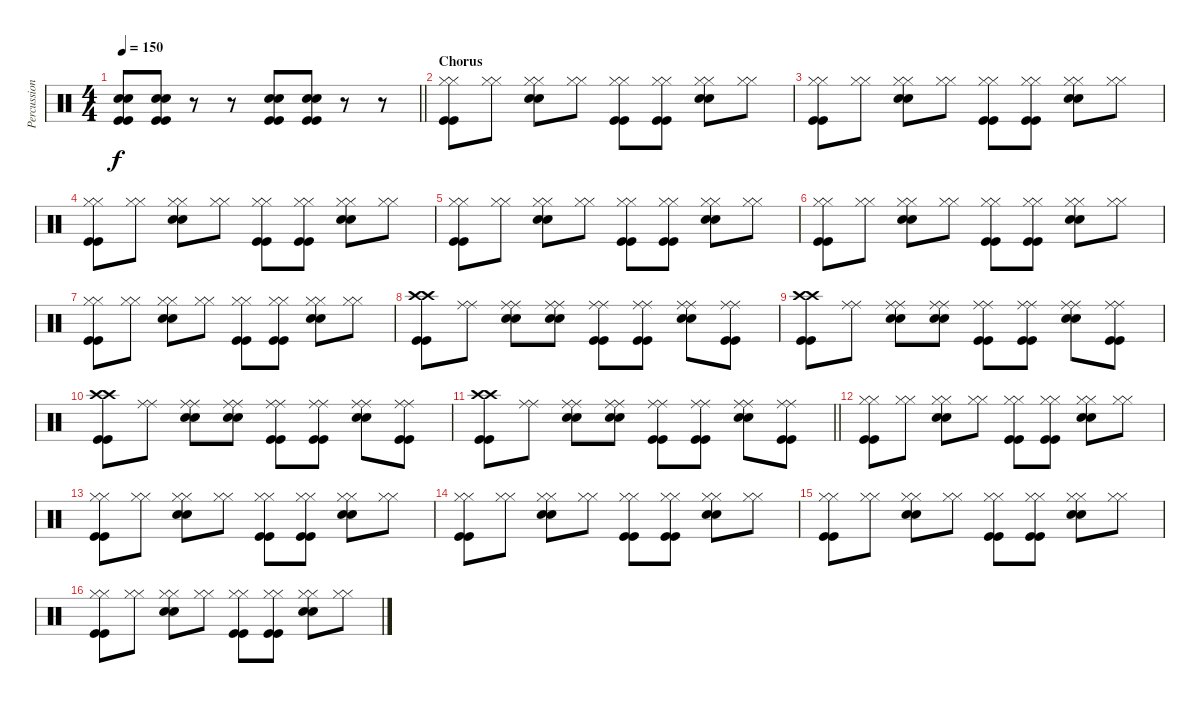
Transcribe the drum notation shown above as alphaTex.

\track ("Percussion" "Percussion") {instrument percussion bank 129}
\staff
\articulation defaults
\ts (4 4)
\tempo 150
\clef neutral
\barLineRight lightlight
\ks c
("Kick (hit)" "Kick (hit)" "Snare (hit) 2" "Snare (hit) 2").8{dy f} ("Kick (hit)" "Kick (hit)" "Snare (hit) 2" "Snare (hit) 2").8 r.8 r.8 ("Kick (hit)" "Kick (hit)" "Snare (hit) 2" "Snare (hit) 2").8 ("Kick (hit)" "Kick (hit)" "Snare (hit) 2" "Snare (hit) 2").8 r.8 r.8 |
\section ("" "Chorus")
("Hi-Hat (closed)" "Hi-Hat (closed)" "Kick (hit)" "Kick (hit)").8 ("Hi-Hat (closed)" "Hi-Hat (closed)").8 ("Hi-Hat (closed)" "Hi-Hat (closed)" "Snare (hit) 2" "Snare (hit) 2").8 ("Hi-Hat (closed)" "Hi-Hat (closed)").8 ("Hi-Hat (closed)" "Hi-Hat (closed)" "Kick (hit)" "Kick (hit)").8 ("Hi-Hat (closed)" "Hi-Hat (closed)" "Kick (hit)" "Kick (hit)").8 ("Hi-Hat (closed)" "Hi-Hat (closed)" "Snare (hit) 2" "Snare (hit) 2").8 ("Hi-Hat (closed)" "Hi-Hat (closed)").8 |
("Hi-Hat (closed)" "Hi-Hat (closed)" "Kick (hit)" "Kick (hit)").8 ("Hi-Hat (closed)" "Hi-Hat (closed)").8 ("Hi-Hat (closed)" "Hi-Hat (closed)" "Snare (hit) 2" "Snare (hit) 2").8 ("Hi-Hat (closed)" "Hi-Hat (closed)").8 ("Hi-Hat (closed)" "Hi-Hat (closed)" "Kick (hit)" "Kick (hit)").8 ("Hi-Hat (closed)" "Hi-Hat (closed)" "Kick (hit)" "Kick (hit)").8 ("Hi-Hat (closed)" "Hi-Hat (closed)" "Snare (hit) 2" "Snare (hit) 2").8 ("Hi-Hat (closed)" "Hi-Hat (closed)").8 |
("Hi-Hat (closed)" "Hi-Hat (closed)" "Kick (hit)" "Kick (hit)").8 ("Hi-Hat (closed)" "Hi-Hat (closed)").8 ("Hi-Hat (closed)" "Hi-Hat (closed)" "Snare (hit) 2" "Snare (hit) 2").8 ("Hi-Hat (closed)" "Hi-Hat (closed)").8 ("Hi-Hat (closed)" "Hi-Hat (closed)" "Kick (hit)" "Kick (hit)").8 ("Hi-Hat (closed)" "Hi-Hat (closed)" "Kick (hit)" "Kick (hit)").8 ("Hi-Hat (closed)" "Hi-Hat (closed)" "Snare (hit) 2" "Snare (hit) 2").8 ("Hi-Hat (closed)" "Hi-Hat (closed)").8 |
("Hi-Hat (closed)" "Hi-Hat (closed)" "Kick (hit)" "Kick (hit)").8 ("Hi-Hat (closed)" "Hi-Hat (closed)").8 ("Hi-Hat (closed)" "Hi-Hat (closed)" "Snare (hit) 2" "Snare (hit) 2").8 ("Hi-Hat (closed)" "Hi-Hat (closed)").8 ("Hi-Hat (closed)" "Hi-Hat (closed)" "Kick (hit)" "Kick (hit)").8 ("Hi-Hat (closed)" "Hi-Hat (closed)" "Kick (hit)" "Kick (hit)").8 ("Hi-Hat (closed)" "Hi-Hat (closed)" "Snare (hit) 2" "Snare (hit) 2").8 ("Hi-Hat (closed)" "Hi-Hat (closed)").8 |
("Hi-Hat (closed)" "Hi-Hat (closed)" "Kick (hit)" "Kick (hit)").8 ("Hi-Hat (closed)" "Hi-Hat (closed)").8 ("Hi-Hat (closed)" "Hi-Hat (closed)" "Snare (hit) 2" "Snare (hit) 2").8 ("Hi-Hat (closed)" "Hi-Hat (closed)").8 ("Hi-Hat (closed)" "Hi-Hat (closed)" "Kick (hit)" "Kick (hit)").8 ("Hi-Hat (closed)" "Hi-Hat (closed)" "Kick (hit)" "Kick (hit)").8 ("Hi-Hat (closed)" "Hi-Hat (closed)" "Snare (hit) 2" "Snare (hit) 2").8 ("Hi-Hat (closed)" "Hi-Hat (closed)").8 |
("Hi-Hat (closed)" "Hi-Hat (closed)" "Kick (hit)" "Kick (hit)").8 ("Hi-Hat (closed)" "Hi-Hat (closed)").8 ("Hi-Hat (closed)" "Hi-Hat (closed)" "Snare (hit) 2" "Snare (hit) 2").8 ("Hi-Hat (closed)" "Hi-Hat (closed)").8 ("Hi-Hat (closed)" "Hi-Hat (closed)" "Kick (hit)" "Kick (hit)").8 ("Hi-Hat (closed)" "Hi-Hat (closed)" "Kick (hit)" "Kick (hit)").8 ("Hi-Hat (closed)" "Hi-Hat (closed)" "Snare (hit) 2" "Snare (hit) 2").8 ("Hi-Hat (closed)" "Hi-Hat (closed)").8 |
("Crash high (hit)" "Crash high (hit)" "Kick (hit)" "Kick (hit)").8 ("Ride (middle)" "Ride (middle)").8 ("Ride (middle)" "Ride (middle)" "Snare (hit) 2" "Snare (hit) 2").8 ("Ride (middle)" "Ride (middle)" "Snare (hit) 2" "Snare (hit) 2").8 ("Ride (middle)" "Ride (middle)" "Kick (hit)" "Kick (hit)").8 ("Ride (middle)" "Ride (middle)" "Kick (hit)" "Kick (hit)").8 ("Ride (middle)" "Ride (middle)" "Snare (hit) 2" "Snare (hit) 2").8 ("Ride (middle)" "Ride (middle)" "Kick (hit)" "Kick (hit)").8 |
("Crash high (hit)" "Crash high (hit)" "Kick (hit)" "Kick (hit)").8 ("Ride (middle)" "Ride (middle)").8 ("Ride (middle)" "Ride (middle)" "Snare (hit) 2" "Snare (hit) 2").8 ("Ride (middle)" "Ride (middle)" "Snare (hit) 2" "Snare (hit) 2").8 ("Ride (middle)" "Ride (middle)" "Kick (hit)" "Kick (hit)").8 ("Ride (middle)" "Ride (middle)" "Kick (hit)" "Kick (hit)").8 ("Ride (middle)" "Ride (middle)" "Snare (hit) 2" "Snare (hit) 2").8 ("Ride (middle)" "Ride (middle)" "Kick (hit)" "Kick (hit)").8 |
("Crash high (hit)" "Crash high (hit)" "Kick (hit)" "Kick (hit)").8 ("Ride (middle)" "Ride (middle)").8 ("Ride (middle)" "Ride (middle)" "Snare (hit) 2" "Snare (hit) 2").8 ("Ride (middle)" "Ride (middle)" "Snare (hit) 2" "Snare (hit) 2").8 ("Ride (middle)" "Ride (middle)" "Kick (hit)" "Kick (hit)").8 ("Ride (middle)" "Ride (middle)" "Kick (hit)" "Kick (hit)").8 ("Ride (middle)" "Ride (middle)" "Snare (hit) 2" "Snare (hit) 2").8 ("Ride (middle)" "Ride (middle)" "Kick (hit)" "Kick (hit)").8 |
\barLineRight lightlight
("Crash high (hit)" "Crash high (hit)" "Kick (hit)" "Kick (hit)").8 ("Ride (middle)" "Ride (middle)").8 ("Ride (middle)" "Ride (middle)" "Snare (hit) 2" "Snare (hit) 2").8 ("Ride (middle)" "Ride (middle)" "Snare (hit) 2" "Snare (hit) 2").8 ("Ride (middle)" "Ride (middle)" "Kick (hit)" "Kick (hit)").8 ("Ride (middle)" "Ride (middle)" "Kick (hit)" "Kick (hit)").8 ("Ride (middle)" "Ride (middle)" "Snare (hit) 2" "Snare (hit) 2").8 ("Ride (middle)" "Ride (middle)" "Kick (hit)" "Kick (hit)").8 |
("Hi-Hat (closed)" "Hi-Hat (closed)" "Kick (hit)" "Kick (hit)").8 ("Hi-Hat (closed)" "Hi-Hat (closed)").8 ("Hi-Hat (closed)" "Hi-Hat (closed)" "Snare (hit) 2" "Snare (hit) 2").8 ("Hi-Hat (closed)" "Hi-Hat (closed)").8 ("Hi-Hat (closed)" "Hi-Hat (closed)" "Kick (hit)" "Kick (hit)").8 ("Hi-Hat (closed)" "Hi-Hat (closed)" "Kick (hit)" "Kick (hit)").8 ("Hi-Hat (closed)" "Hi-Hat (closed)" "Snare (hit) 2" "Snare (hit) 2").8 ("Hi-Hat (closed)" "Hi-Hat (closed)").8 |
("Hi-Hat (closed)" "Hi-Hat (closed)" "Kick (hit)" "Kick (hit)").8 ("Hi-Hat (closed)" "Hi-Hat (closed)").8 ("Hi-Hat (closed)" "Hi-Hat (closed)" "Snare (hit) 2" "Snare (hit) 2").8 ("Hi-Hat (closed)" "Hi-Hat (closed)").8 ("Hi-Hat (closed)" "Hi-Hat (closed)" "Kick (hit)" "Kick (hit)").8 ("Hi-Hat (closed)" "Hi-Hat (closed)" "Kick (hit)" "Kick (hit)").8 ("Hi-Hat (closed)" "Hi-Hat (closed)" "Snare (hit) 2" "Snare (hit) 2").8 ("Hi-Hat (closed)" "Hi-Hat (closed)").8 |
("Hi-Hat (closed)" "Hi-Hat (closed)" "Kick (hit)" "Kick (hit)").8 ("Hi-Hat (closed)" "Hi-Hat (closed)").8 ("Hi-Hat (closed)" "Hi-Hat (closed)" "Snare (hit) 2" "Snare (hit) 2").8 ("Hi-Hat (closed)" "Hi-Hat (closed)").8 ("Hi-Hat (closed)" "Hi-Hat (closed)" "Kick (hit)" "Kick (hit)").8 ("Hi-Hat (closed)" "Hi-Hat (closed)" "Kick (hit)" "Kick (hit)").8 ("Hi-Hat (closed)" "Hi-Hat (closed)" "Snare (hit) 2" "Snare (hit) 2").8 ("Hi-Hat (closed)" "Hi-Hat (closed)").8 |
("Hi-Hat (closed)" "Hi-Hat (closed)" "Kick (hit)" "Kick (hit)").8 ("Hi-Hat (closed)" "Hi-Hat (closed)").8 ("Hi-Hat (closed)" "Hi-Hat (closed)" "Snare (hit) 2" "Snare (hit) 2").8 ("Hi-Hat (closed)" "Hi-Hat (closed)").8 ("Hi-Hat (closed)" "Hi-Hat (closed)" "Kick (hit)" "Kick (hit)").8 ("Hi-Hat (closed)" "Hi-Hat (closed)" "Kick (hit)" "Kick (hit)").8 ("Hi-Hat (closed)" "Hi-Hat (closed)" "Snare (hit) 2" "Snare (hit) 2").8 ("Hi-Hat (closed)" "Hi-Hat (closed)").8 |
("Hi-Hat (closed)" "Hi-Hat (closed)" "Kick (hit)" "Kick (hit)").8 ("Hi-Hat (closed)" "Hi-Hat (closed)").8 ("Hi-Hat (closed)" "Hi-Hat (closed)" "Snare (hit) 2" "Snare (hit) 2").8 ("Hi-Hat (closed)" "Hi-Hat (closed)").8 ("Hi-Hat (closed)" "Hi-Hat (closed)" "Kick (hit)" "Kick (hit)").8 ("Hi-Hat (closed)" "Hi-Hat (closed)" "Kick (hit)" "Kick (hit)").8 ("Hi-Hat (closed)" "Hi-Hat (closed)" "Snare (hit) 2" "Snare (hit) 2").8 ("Hi-Hat (closed)" "Hi-Hat (closed)").8
